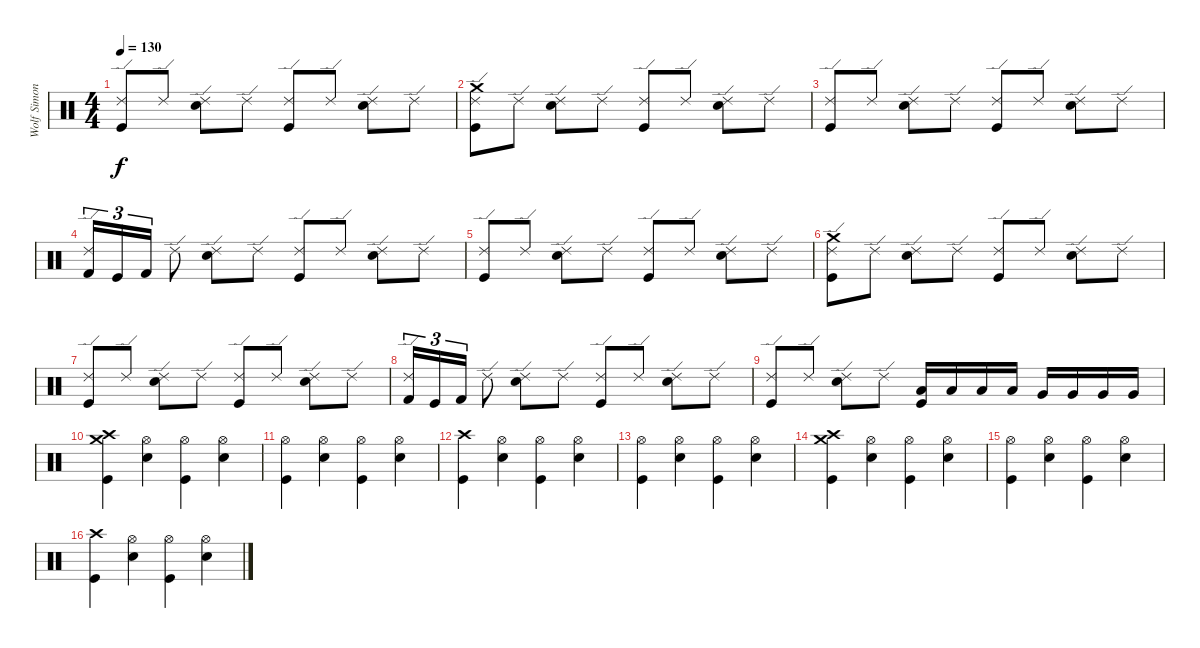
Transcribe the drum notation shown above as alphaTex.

\track ("Wolf Simon" "Wolf Simon") {instrument percussion}
\staff {score}
\articulation defaults
\ts (4 4)
\tempo 130
\clef neutral
\ks c
("Ride (edge) 2" "Kick (hit)").8{dy f} "Ride (edge) 2".8 ("Ride (edge) 2" "Electric Snare (hit)").8 "Ride (edge) 2".8 ("Ride (edge) 2" "Kick (hit)").8 "Ride (edge) 2".8 ("Ride (edge) 2" "Electric Snare (hit)").8 "Ride (edge) 2".8 |
("Crash medium (hit)" "Ride (edge) 2" "Kick (hit)").8 "Ride (edge) 2".8 ("Ride (edge) 2" "Electric Snare (hit)").8 "Ride (edge) 2".8 ("Ride (edge) 2" "Kick (hit)").8 "Ride (edge) 2".8 ("Ride (edge) 2" "Electric Snare (hit)").8 "Ride (edge) 2".8 |
("Ride (edge) 2" "Kick (hit)").8 "Ride (edge) 2".8 ("Ride (edge) 2" "Electric Snare (hit)").8 "Ride (edge) 2".8 ("Ride (edge) 2" "Kick (hit)").8 "Ride (edge) 2".8 ("Ride (edge) 2" "Electric Snare (hit)").8 "Ride (edge) 2".8 |
("Ride (edge) 2" "Kick (hit) 2").16{tu (3 2)} "Kick (hit)".16{tu (3 2)} "Kick (hit) 2".16{tu (3 2)} "Ride (edge) 2".8 ("Ride (edge) 2" "Electric Snare (hit)").8 "Ride (edge) 2".8 ("Ride (edge) 2" "Kick (hit)").8 "Ride (edge) 2".8 ("Ride (edge) 2" "Electric Snare (hit)").8 "Ride (edge) 2".8 |
("Ride (edge) 2" "Kick (hit)").8 "Ride (edge) 2".8 ("Ride (edge) 2" "Electric Snare (hit)").8 "Ride (edge) 2".8 ("Ride (edge) 2" "Kick (hit)").8 "Ride (edge) 2".8 ("Ride (edge) 2" "Electric Snare (hit)").8 "Ride (edge) 2".8 |
("Crash medium (hit)" "Ride (edge) 2" "Kick (hit)").8 "Ride (edge) 2".8 ("Ride (edge) 2" "Electric Snare (hit)").8 "Ride (edge) 2".8 ("Ride (edge) 2" "Kick (hit)").8 "Ride (edge) 2".8 ("Ride (edge) 2" "Electric Snare (hit)").8 "Ride (edge) 2".8 |
("Ride (edge) 2" "Kick (hit)").8 "Ride (edge) 2".8 ("Ride (edge) 2" "Electric Snare (hit)").8 "Ride (edge) 2".8 ("Ride (edge) 2" "Kick (hit)").8 "Ride (edge) 2".8 ("Ride (edge) 2" "Electric Snare (hit)").8 "Ride (edge) 2".8 |
("Ride (edge) 2" "Kick (hit) 2").16{tu (3 2)} "Kick (hit)".16{tu (3 2)} "Kick (hit) 2".16{tu (3 2)} "Ride (edge) 2".8 ("Ride (edge) 2" "Electric Snare (hit)").8 "Ride (edge) 2".8 ("Ride (edge) 2" "Kick (hit)").8 "Ride (edge) 2".8 ("Ride (edge) 2" "Electric Snare (hit)").8 "Ride (edge) 2".8 |
("Ride (edge) 2" "Kick (hit)").8 "Ride (edge) 2".8 ("Ride (edge) 2" "Electric Snare (hit)").8 "Ride (edge) 2".8 ("Low Tom (hit)" "Kick (hit)").16 "Low Tom (hit)".16 "Low Tom (hit)".16 "Low Tom (hit)".16 "Very Low Tom (hit)".16 "Very Low Tom (hit)".16 "Very Low Tom (hit)".16 "Very Low Tom (hit)".16 |
("Crash medium (hit)" "Crash high (hit)" "Kick (hit)").4 ("Hi-Hat (open)" "Electric Snare (hit)").4 ("Hi-Hat (open)" "Kick (hit)").4 ("Hi-Hat (open)" "Electric Snare (hit)").4 |
("Hi-Hat (open)" "Kick (hit)").4 ("Hi-Hat (open)" "Electric Snare (hit)").4 ("Hi-Hat (open)" "Kick (hit)").4 ("Hi-Hat (open)" "Electric Snare (hit)").4 |
("Crash high (hit)" "Kick (hit)").4 ("Hi-Hat (open)" "Electric Snare (hit)").4 ("Hi-Hat (open)" "Kick (hit)").4 ("Hi-Hat (open)" "Electric Snare (hit)").4 |
("Hi-Hat (open)" "Kick (hit)").4 ("Hi-Hat (open)" "Electric Snare (hit)").4 ("Hi-Hat (open)" "Kick (hit)").4 ("Hi-Hat (open)" "Electric Snare (hit)").4 |
("Crash medium (hit)" "Crash high (hit)" "Kick (hit)").4 ("Hi-Hat (open)" "Electric Snare (hit)").4 ("Hi-Hat (open)" "Kick (hit)").4 ("Hi-Hat (open)" "Electric Snare (hit)").4 |
("Hi-Hat (open)" "Kick (hit)").4 ("Hi-Hat (open)" "Electric Snare (hit)").4 ("Hi-Hat (open)" "Kick (hit)").4 ("Hi-Hat (open)" "Electric Snare (hit)").4 |
("Crash high (hit)" "Kick (hit)").4 ("Hi-Hat (open)" "Electric Snare (hit)").4 ("Hi-Hat (open)" "Kick (hit)").4 ("Hi-Hat (open)" "Electric Snare (hit)").4
